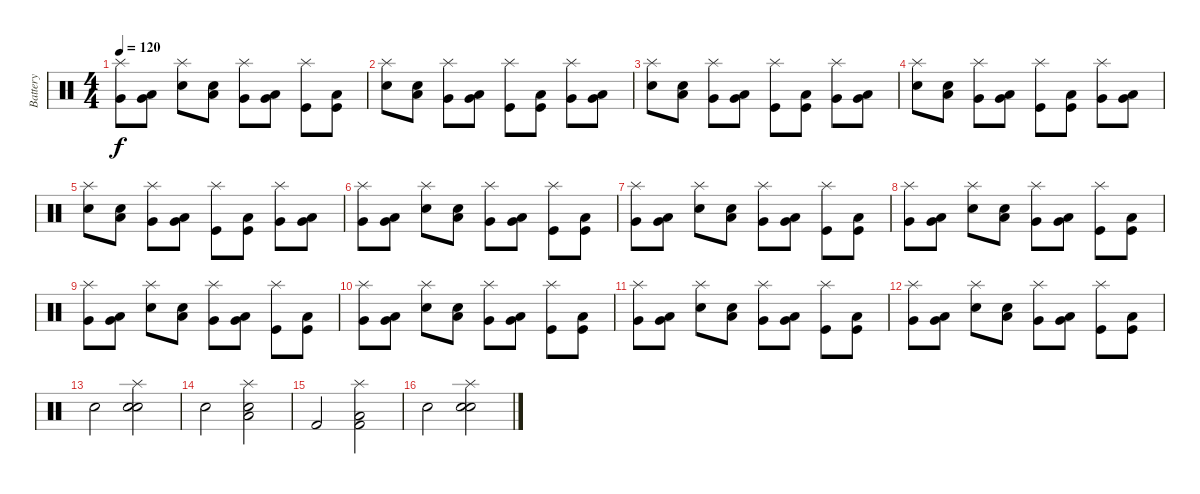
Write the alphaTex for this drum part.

\track ("Battery" "Battery") {instrument percussion}
\staff {score}
\articulation defaults
\ts (4 4)
\tempo 120
\clef neutral
\ks c
("Very Low Tom (hit)" "Splash (hit)").8{dy f} ("Very Low Tom (hit)" "Low Floor Tom (hit)").8 ("Snare (hit) 2" "Splash (hit)").8 ("Snare (hit) 2" "Low Floor Tom (hit)").8 ("Very Low Tom (hit)" "Splash (hit)").8 ("Very Low Tom (hit)" "Low Floor Tom (hit)").8 ("Kick (hit)" "Splash (hit)").8 ("Kick (hit)" "Low Floor Tom (hit)").8 |
("Snare (hit) 2" "Splash (hit)").8 ("Snare (hit) 2" "Low Floor Tom (hit)").8 ("Very Low Tom (hit)" "Splash (hit)").8 ("Very Low Tom (hit)" "Low Floor Tom (hit)").8 ("Kick (hit)" "Splash (hit)").8 ("Kick (hit)" "Low Floor Tom (hit)").8 ("Very Low Tom (hit)" "Splash (hit)").8 ("Very Low Tom (hit)" "Low Floor Tom (hit)").8 |
("Snare (hit) 2" "Splash (hit)").8 ("Snare (hit) 2" "Low Floor Tom (hit)").8 ("Very Low Tom (hit)" "Splash (hit)").8 ("Very Low Tom (hit)" "Low Floor Tom (hit)").8 ("Kick (hit)" "Splash (hit)").8 ("Kick (hit)" "Low Floor Tom (hit)").8 ("Very Low Tom (hit)" "Splash (hit)").8 ("Very Low Tom (hit)" "Low Floor Tom (hit)").8 |
("Snare (hit) 2" "Splash (hit)").8 ("Snare (hit) 2" "Low Floor Tom (hit)").8 ("Very Low Tom (hit)" "Splash (hit)").8 ("Very Low Tom (hit)" "Low Floor Tom (hit)").8 ("Kick (hit)" "Splash (hit)").8 ("Kick (hit)" "Low Floor Tom (hit)").8 ("Very Low Tom (hit)" "Splash (hit)").8 ("Very Low Tom (hit)" "Low Floor Tom (hit)").8 |
("Snare (hit) 2" "Splash (hit)").8 ("Snare (hit) 2" "Low Floor Tom (hit)").8 ("Very Low Tom (hit)" "Splash (hit)").8 ("Very Low Tom (hit)" "Low Floor Tom (hit)").8 ("Kick (hit)" "Splash (hit)").8 ("Kick (hit)" "Low Floor Tom (hit)").8 ("Very Low Tom (hit)" "Splash (hit)").8 ("Very Low Tom (hit)" "Low Floor Tom (hit)").8 |
("Very Low Tom (hit)" "Splash (hit)").8 ("Very Low Tom (hit)" "Low Floor Tom (hit)").8 ("Snare (hit) 2" "Splash (hit)").8 ("Snare (hit) 2" "Low Floor Tom (hit)").8 ("Very Low Tom (hit)" "Splash (hit)").8 ("Very Low Tom (hit)" "Low Floor Tom (hit)").8 ("Kick (hit)" "Splash (hit)").8 ("Kick (hit)" "Low Floor Tom (hit)").8 |
("Very Low Tom (hit)" "Splash (hit)").8 ("Very Low Tom (hit)" "Low Floor Tom (hit)").8 ("Snare (hit) 2" "Splash (hit)").8 ("Snare (hit) 2" "Low Floor Tom (hit)").8 ("Very Low Tom (hit)" "Splash (hit)").8 ("Very Low Tom (hit)" "Low Floor Tom (hit)").8 ("Kick (hit)" "Splash (hit)").8 ("Kick (hit)" "Low Floor Tom (hit)").8 |
("Very Low Tom (hit)" "Splash (hit)").8 ("Very Low Tom (hit)" "Low Floor Tom (hit)").8 ("Snare (hit) 2" "Splash (hit)").8 ("Snare (hit) 2" "Low Floor Tom (hit)").8 ("Very Low Tom (hit)" "Splash (hit)").8 ("Very Low Tom (hit)" "Low Floor Tom (hit)").8 ("Kick (hit)" "Splash (hit)").8 ("Kick (hit)" "Low Floor Tom (hit)").8 |
("Very Low Tom (hit)" "Splash (hit)").8 ("Very Low Tom (hit)" "Low Floor Tom (hit)").8 ("Snare (hit) 2" "Splash (hit)").8 ("Snare (hit) 2" "Low Floor Tom (hit)").8 ("Very Low Tom (hit)" "Splash (hit)").8 ("Very Low Tom (hit)" "Low Floor Tom (hit)").8 ("Kick (hit)" "Splash (hit)").8 ("Kick (hit)" "Low Floor Tom (hit)").8 |
("Very Low Tom (hit)" "Splash (hit)").8 ("Very Low Tom (hit)" "Low Floor Tom (hit)").8 ("Snare (hit) 2" "Splash (hit)").8 ("Snare (hit) 2" "Low Floor Tom (hit)").8 ("Very Low Tom (hit)" "Splash (hit)").8 ("Very Low Tom (hit)" "Low Floor Tom (hit)").8 ("Kick (hit)" "Splash (hit)").8 ("Kick (hit)" "Low Floor Tom (hit)").8 |
("Very Low Tom (hit)" "Splash (hit)").8 ("Very Low Tom (hit)" "Low Floor Tom (hit)").8 ("Snare (hit) 2" "Splash (hit)").8 ("Snare (hit) 2" "Low Floor Tom (hit)").8 ("Very Low Tom (hit)" "Splash (hit)").8 ("Very Low Tom (hit)" "Low Floor Tom (hit)").8 ("Kick (hit)" "Splash (hit)").8 ("Kick (hit)" "Low Floor Tom (hit)").8 |
("Very Low Tom (hit)" "Splash (hit)").8 ("Very Low Tom (hit)" "Low Floor Tom (hit)").8 ("Snare (hit) 2" "Splash (hit)").8 ("Snare (hit) 2" "Low Floor Tom (hit)").8 ("Very Low Tom (hit)" "Splash (hit)").8 ("Very Low Tom (hit)" "Low Floor Tom (hit)").8 ("Kick (hit)" "Splash (hit)").8 ("Kick (hit)" "Low Floor Tom (hit)").8 |
"Snare (hit) 2".2 ("Snare (hit) 2" "Electric Snare (hit)" "Splash (hit)").2 |
"Electric Snare (hit)".2 ("Electric Snare (hit)" "Low Floor Tom (hit)" "Splash (hit)").2 |
"Kick (hit) 2".2 ("Kick (hit) 2" "Low Floor Tom (hit)" "Splash (hit)").2 |
"Snare (hit) 2".2 ("Snare (hit) 2" "Electric Snare (hit)" "Splash (hit)").2
